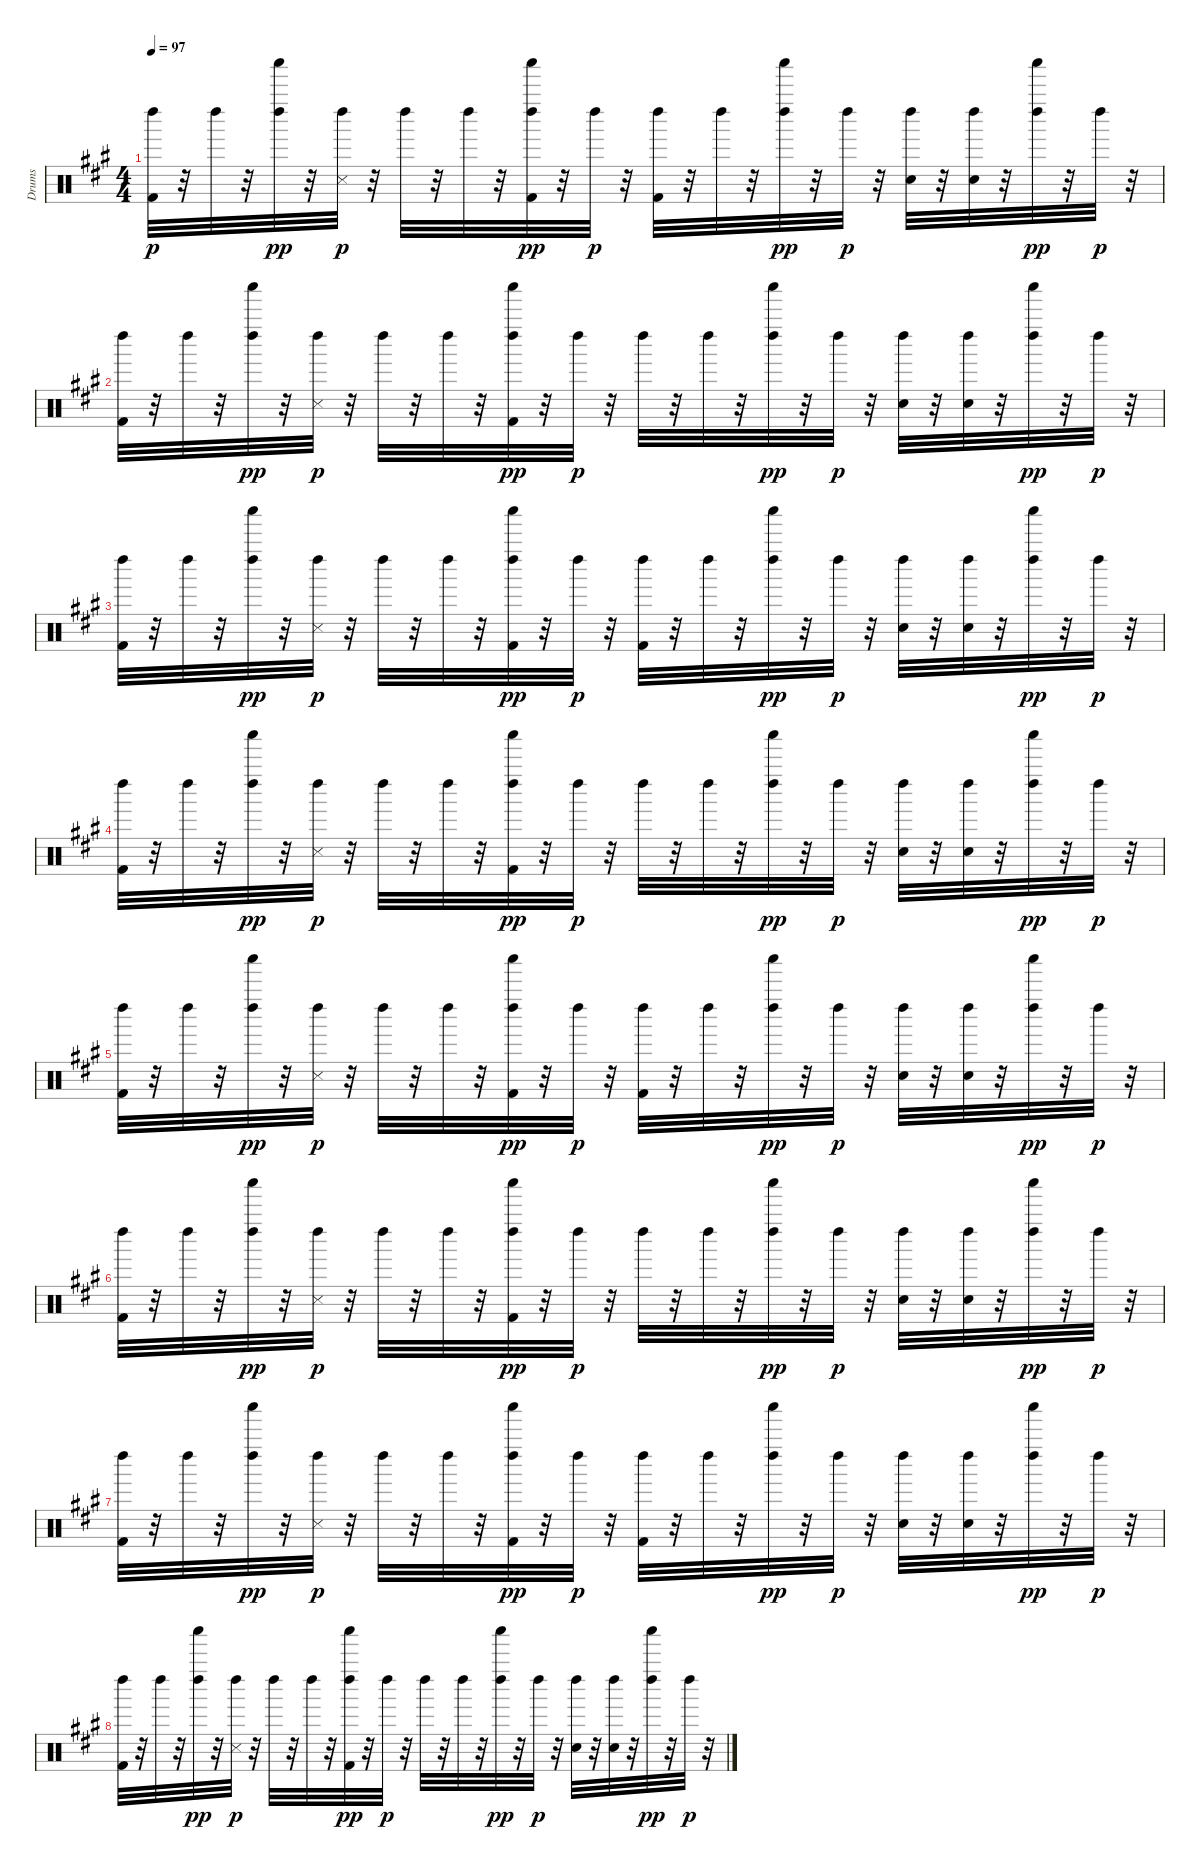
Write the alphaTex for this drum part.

\track ("Drums" "Drums") {instrument percussion}
\staff {score}
\articulation defaults
\ts (4 4)
\tempo 97
\clef neutral
\ks a
("Kick (hit) 2" "Left Maraca (hit)").32{dy p} r.32 "Left Maraca (hit)".32 r.32 ("Shaker (hit)" "Left Maraca (hit)").32{dy pp} r.32 ("Snare (side stick) 3" "Left Maraca (hit)").32{dy p} r.32 "Left Maraca (hit)".32 r.32 "Left Maraca (hit)".32 r.32 ("Kick (hit) 2" "Shaker (hit)" "Left Maraca (hit)").32{dy pp} r.32 "Left Maraca (hit)".32{dy p} r.32 ("Kick (hit) 2" "Left Maraca (hit)").32 r.32 "Left Maraca (hit)".32 r.32 ("Shaker (hit)" "Left Maraca (hit)").32{dy pp} r.32 "Left Maraca (hit)".32{dy p} r.32 ("Hand Clap (hit)" "Left Maraca (hit)").32 r.32 ("Left Maraca (hit)" "Hand Clap (hit)").32 r.32 ("Shaker (hit)" "Left Maraca (hit)").32{dy pp} r.32 "Left Maraca (hit)".32{dy p} r.32 |
("Kick (hit) 2" "Left Maraca (hit)").32 r.32 "Left Maraca (hit)".32 r.32 ("Shaker (hit)" "Left Maraca (hit)").32{dy pp} r.32 ("Snare (side stick) 3" "Left Maraca (hit)").32{dy p} r.32 "Left Maraca (hit)".32 r.32 "Left Maraca (hit)".32 r.32 ("Kick (hit) 2" "Shaker (hit)" "Left Maraca (hit)").32{dy pp} r.32 "Left Maraca (hit)".32{dy p} r.32 "Left Maraca (hit)".32 r.32 "Left Maraca (hit)".32 r.32 ("Shaker (hit)" "Left Maraca (hit)").32{dy pp} r.32 "Left Maraca (hit)".32{dy p} r.32 ("Hand Clap (hit)" "Left Maraca (hit)").32 r.32 ("Left Maraca (hit)" "Hand Clap (hit)").32 r.32 ("Shaker (hit)" "Left Maraca (hit)").32{dy pp} r.32 "Left Maraca (hit)".32{dy p} r.32 |
("Kick (hit) 2" "Left Maraca (hit)").32 r.32 "Left Maraca (hit)".32 r.32 ("Shaker (hit)" "Left Maraca (hit)").32{dy pp} r.32 ("Snare (side stick) 3" "Left Maraca (hit)").32{dy p} r.32 "Left Maraca (hit)".32 r.32 "Left Maraca (hit)".32 r.32 ("Kick (hit) 2" "Shaker (hit)" "Left Maraca (hit)").32{dy pp} r.32 "Left Maraca (hit)".32{dy p} r.32 ("Kick (hit) 2" "Left Maraca (hit)").32 r.32 "Left Maraca (hit)".32 r.32 ("Shaker (hit)" "Left Maraca (hit)").32{dy pp} r.32 "Left Maraca (hit)".32{dy p} r.32 ("Hand Clap (hit)" "Left Maraca (hit)").32 r.32 ("Left Maraca (hit)" "Hand Clap (hit)").32 r.32 ("Shaker (hit)" "Left Maraca (hit)").32{dy pp} r.32 "Left Maraca (hit)".32{dy p} r.32 |
("Kick (hit) 2" "Left Maraca (hit)").32 r.32 "Left Maraca (hit)".32 r.32 ("Shaker (hit)" "Left Maraca (hit)").32{dy pp} r.32 ("Snare (side stick) 3" "Left Maraca (hit)").32{dy p} r.32 "Left Maraca (hit)".32 r.32 "Left Maraca (hit)".32 r.32 ("Kick (hit) 2" "Shaker (hit)" "Left Maraca (hit)").32{dy pp} r.32 "Left Maraca (hit)".32{dy p} r.32 "Left Maraca (hit)".32 r.32 "Left Maraca (hit)".32 r.32 ("Shaker (hit)" "Left Maraca (hit)").32{dy pp} r.32 "Left Maraca (hit)".32{dy p} r.32 ("Hand Clap (hit)" "Left Maraca (hit)").32 r.32 ("Left Maraca (hit)" "Hand Clap (hit)").32 r.32 ("Shaker (hit)" "Left Maraca (hit)").32{dy pp} r.32 "Left Maraca (hit)".32{dy p} r.32 |
("Kick (hit) 2" "Left Maraca (hit)").32 r.32 "Left Maraca (hit)".32 r.32 ("Shaker (hit)" "Left Maraca (hit)").32{dy pp} r.32 ("Snare (side stick) 3" "Left Maraca (hit)").32{dy p} r.32 "Left Maraca (hit)".32 r.32 "Left Maraca (hit)".32 r.32 ("Kick (hit) 2" "Shaker (hit)" "Left Maraca (hit)").32{dy pp} r.32 "Left Maraca (hit)".32{dy p} r.32 ("Kick (hit) 2" "Left Maraca (hit)").32 r.32 "Left Maraca (hit)".32 r.32 ("Shaker (hit)" "Left Maraca (hit)").32{dy pp} r.32 "Left Maraca (hit)".32{dy p} r.32 ("Hand Clap (hit)" "Left Maraca (hit)").32 r.32 ("Left Maraca (hit)" "Hand Clap (hit)").32 r.32 ("Shaker (hit)" "Left Maraca (hit)").32{dy pp} r.32 "Left Maraca (hit)".32{dy p} r.32 |
("Kick (hit) 2" "Left Maraca (hit)").32 r.32 "Left Maraca (hit)".32 r.32 ("Shaker (hit)" "Left Maraca (hit)").32{dy pp} r.32 ("Snare (side stick) 3" "Left Maraca (hit)").32{dy p} r.32 "Left Maraca (hit)".32 r.32 "Left Maraca (hit)".32 r.32 ("Kick (hit) 2" "Shaker (hit)" "Left Maraca (hit)").32{dy pp} r.32 "Left Maraca (hit)".32{dy p} r.32 "Left Maraca (hit)".32 r.32 "Left Maraca (hit)".32 r.32 ("Shaker (hit)" "Left Maraca (hit)").32{dy pp} r.32 "Left Maraca (hit)".32{dy p} r.32 ("Hand Clap (hit)" "Left Maraca (hit)").32 r.32 ("Left Maraca (hit)" "Hand Clap (hit)").32 r.32 ("Shaker (hit)" "Left Maraca (hit)").32{dy pp} r.32 "Left Maraca (hit)".32{dy p} r.32 |
("Kick (hit) 2" "Left Maraca (hit)").32 r.32 "Left Maraca (hit)".32 r.32 ("Shaker (hit)" "Left Maraca (hit)").32{dy pp} r.32 ("Snare (side stick) 3" "Left Maraca (hit)").32{dy p} r.32 "Left Maraca (hit)".32 r.32 "Left Maraca (hit)".32 r.32 ("Kick (hit) 2" "Shaker (hit)" "Left Maraca (hit)").32{dy pp} r.32 "Left Maraca (hit)".32{dy p} r.32 ("Kick (hit) 2" "Left Maraca (hit)").32 r.32 "Left Maraca (hit)".32 r.32 ("Shaker (hit)" "Left Maraca (hit)").32{dy pp} r.32 "Left Maraca (hit)".32{dy p} r.32 ("Hand Clap (hit)" "Left Maraca (hit)").32 r.32 ("Left Maraca (hit)" "Hand Clap (hit)").32 r.32 ("Shaker (hit)" "Left Maraca (hit)").32{dy pp} r.32 "Left Maraca (hit)".32{dy p} r.32 |
("Kick (hit) 2" "Left Maraca (hit)").32 r.32 "Left Maraca (hit)".32 r.32 ("Shaker (hit)" "Left Maraca (hit)").32{dy pp} r.32 ("Snare (side stick) 3" "Left Maraca (hit)").32{dy p} r.32 "Left Maraca (hit)".32 r.32 "Left Maraca (hit)".32 r.32 ("Kick (hit) 2" "Shaker (hit)" "Left Maraca (hit)").32{dy pp} r.32 "Left Maraca (hit)".32{dy p} r.32 "Left Maraca (hit)".32 r.32 "Left Maraca (hit)".32 r.32 ("Shaker (hit)" "Left Maraca (hit)").32{dy pp} r.32 "Left Maraca (hit)".32{dy p} r.32 ("Hand Clap (hit)" "Left Maraca (hit)").32 r.32 ("Left Maraca (hit)" "Hand Clap (hit)").32 r.32 ("Shaker (hit)" "Left Maraca (hit)").32{dy pp} r.32 "Left Maraca (hit)".32{dy p} r.32
